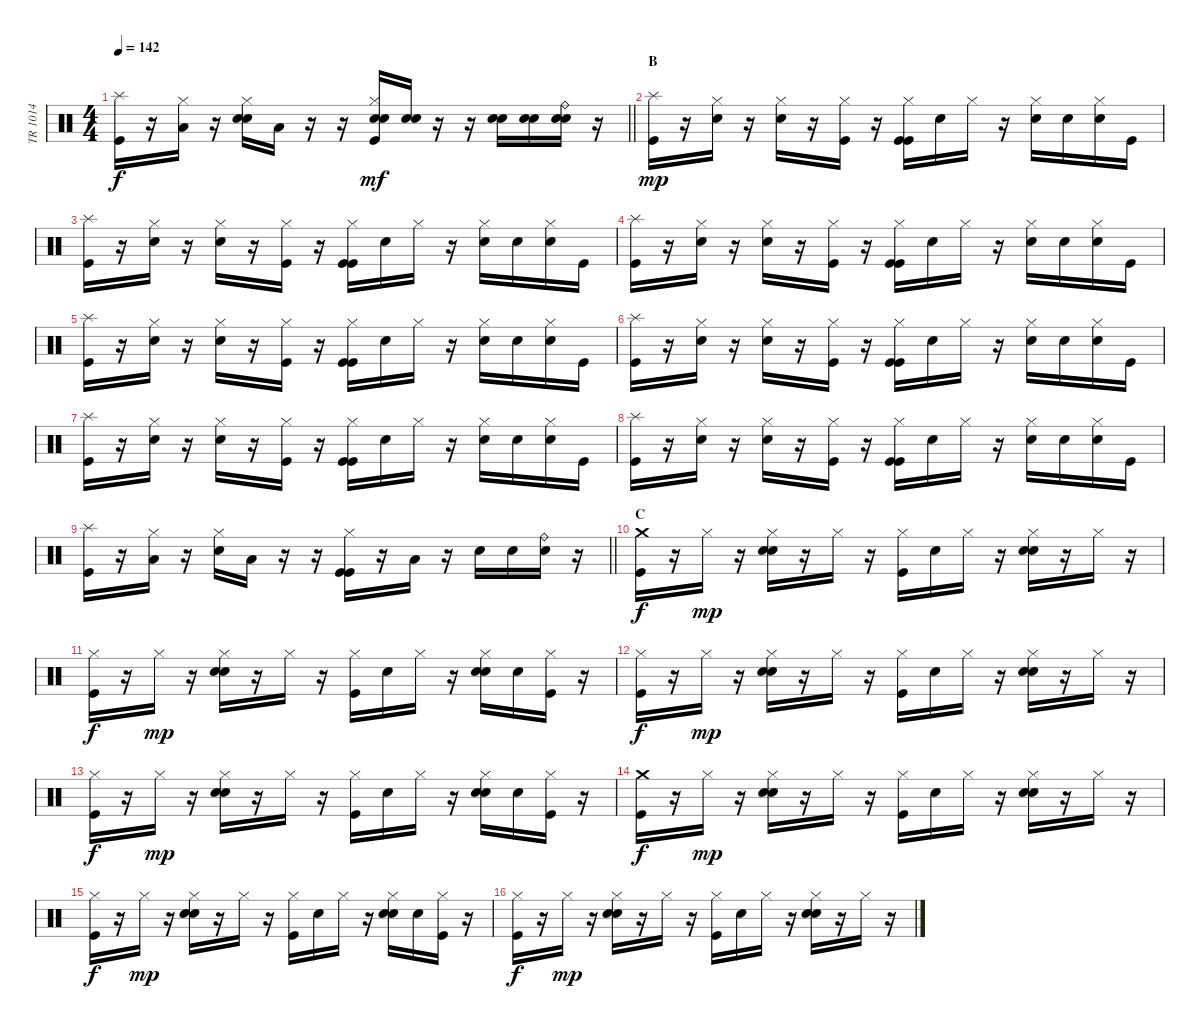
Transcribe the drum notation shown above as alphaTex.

\track ("TR 1014" "TR 1014") {instrument percussion}
\staff {score}
\articulation defaults
\ts (4 4)
\tempo 142
\clef neutral
\barLineRight lightlight
\ks c
("Splash (hit)" "Kick (hit)").16{dy f} r.16 ("Hi-Hat (closed)" "Low Tom (hit)").16 r.16 ("Hi-Hat (closed)" "Electric Snare (hit)" "Snare (hit) 2").16 "Low Tom (hit)".16 r.16 r.16 ("Hi-Hat (closed)" "Electric Snare (hit)" "Snare (hit) 2" "Kick (hit)").16{dy mf} ("Electric Snare (hit)" "Snare (hit) 2").16 r.16 r.16 ("Electric Snare (hit)" "Snare (hit) 2").16 ("Electric Snare (hit)" "Snare (hit) 2").16 ("Ride (bell)" "Electric Snare (hit)" "Snare (hit) 2").16 r.16 |
\section ("" "B")
("Splash (hit)" "Kick (hit)").16{dy mp} r.16 ("Hi-Hat (closed)" "Snare (hit) 2").16 r.16 ("Hi-Hat (closed)" "Snare (hit) 2").16 r.16 ("Hi-Hat (closed)" "Kick (hit)").16 r.16 ("Hi-Hat (closed)" "Kick (hit)" "Kick (hit)").16 "Snare (hit) 2".16 "Hi-Hat (closed)".16 r.16 ("Hi-Hat (closed)" "Snare (hit) 2").16 "Snare (hit) 2".16 ("Hi-Hat (closed)" "Snare (hit) 2").16 "Kick (hit)".16 |
("Splash (hit)" "Kick (hit)").16 r.16 ("Hi-Hat (closed)" "Snare (hit) 2").16 r.16 ("Hi-Hat (closed)" "Snare (hit) 2").16 r.16 ("Hi-Hat (closed)" "Kick (hit)").16 r.16 ("Hi-Hat (closed)" "Kick (hit)" "Kick (hit)").16 "Snare (hit) 2".16 "Hi-Hat (closed)".16 r.16 ("Hi-Hat (closed)" "Snare (hit) 2").16 "Snare (hit) 2".16 ("Hi-Hat (closed)" "Snare (hit) 2").16 "Kick (hit)".16 |
("Splash (hit)" "Kick (hit)").16 r.16 ("Hi-Hat (closed)" "Snare (hit) 2").16 r.16 ("Hi-Hat (closed)" "Snare (hit) 2").16 r.16 ("Hi-Hat (closed)" "Kick (hit)").16 r.16 ("Hi-Hat (closed)" "Kick (hit)" "Kick (hit)").16 "Snare (hit) 2".16 "Hi-Hat (closed)".16 r.16 ("Hi-Hat (closed)" "Snare (hit) 2").16 "Snare (hit) 2".16 ("Hi-Hat (closed)" "Snare (hit) 2").16 "Kick (hit)".16 |
("Splash (hit)" "Kick (hit)").16 r.16 ("Hi-Hat (closed)" "Snare (hit) 2").16 r.16 ("Hi-Hat (closed)" "Snare (hit) 2").16 r.16 ("Hi-Hat (closed)" "Kick (hit)").16 r.16 ("Hi-Hat (closed)" "Kick (hit)" "Kick (hit)").16 "Snare (hit) 2".16 "Hi-Hat (closed)".16 r.16 ("Hi-Hat (closed)" "Snare (hit) 2").16 "Snare (hit) 2".16 ("Hi-Hat (closed)" "Snare (hit) 2").16 "Kick (hit)".16 |
("Splash (hit)" "Kick (hit)").16 r.16 ("Hi-Hat (closed)" "Snare (hit) 2").16 r.16 ("Hi-Hat (closed)" "Snare (hit) 2").16 r.16 ("Hi-Hat (closed)" "Kick (hit)").16 r.16 ("Hi-Hat (closed)" "Kick (hit)" "Kick (hit)").16 "Snare (hit) 2".16 "Hi-Hat (closed)".16 r.16 ("Hi-Hat (closed)" "Snare (hit) 2").16 "Snare (hit) 2".16 ("Hi-Hat (closed)" "Snare (hit) 2").16 "Kick (hit)".16 |
("Splash (hit)" "Kick (hit)").16 r.16 ("Hi-Hat (closed)" "Snare (hit) 2").16 r.16 ("Hi-Hat (closed)" "Snare (hit) 2").16 r.16 ("Hi-Hat (closed)" "Kick (hit)").16 r.16 ("Hi-Hat (closed)" "Kick (hit)" "Kick (hit)").16 "Snare (hit) 2".16 "Hi-Hat (closed)".16 r.16 ("Hi-Hat (closed)" "Snare (hit) 2").16 "Snare (hit) 2".16 ("Hi-Hat (closed)" "Snare (hit) 2").16 "Kick (hit)".16 |
("Splash (hit)" "Kick (hit)").16 r.16 ("Hi-Hat (closed)" "Snare (hit) 2").16 r.16 ("Hi-Hat (closed)" "Snare (hit) 2").16 r.16 ("Hi-Hat (closed)" "Kick (hit)").16 r.16 ("Hi-Hat (closed)" "Kick (hit)" "Kick (hit)").16 "Snare (hit) 2".16 "Hi-Hat (closed)".16 r.16 ("Hi-Hat (closed)" "Snare (hit) 2").16 "Snare (hit) 2".16 ("Hi-Hat (closed)" "Snare (hit) 2").16 "Kick (hit)".16 |
\barLineRight lightlight
("Splash (hit)" "Kick (hit)").16 r.16 ("Hi-Hat (closed)" "Low Tom (hit)").16 r.16 ("Hi-Hat (closed)" "Snare (hit) 2").16 "Low Tom (hit)".16 r.16 r.16 ("Hi-Hat (closed)" "Kick (hit)" "Kick (hit)").16 r.16 "Low Tom (hit)".16 r.16 "Snare (hit) 2".16 "Snare (hit) 2".16 ("Ride (bell)" "Snare (hit) 2").16 r.16 |
\section ("" "C")
("Crash medium (hit)" "Kick (hit)").16{dy f} r.16 "Hi-Hat (closed)".16{dy mp} r.16 ("Hi-Hat (closed)" "Electric Snare (hit)" "Snare (hit) 2").16 r.16 "Hi-Hat (closed)".16 r.16 ("Hi-Hat (closed)" "Kick (hit)").16 "Snare (hit) 2".16 "Hi-Hat (closed)".16 r.16 ("Hi-Hat (closed)" "Electric Snare (hit)" "Snare (hit) 2").16 r.16 "Hi-Hat (closed)".16 r.16 |
("Hi-Hat (closed)" "Kick (hit)").16{dy f} r.16 "Hi-Hat (closed)".16{dy mp} r.16 ("Hi-Hat (closed)" "Electric Snare (hit)" "Snare (hit) 2").16 r.16 "Hi-Hat (closed)".16 r.16 ("Hi-Hat (closed)" "Kick (hit)").16 "Snare (hit) 2".16 "Hi-Hat (closed)".16 r.16 ("Hi-Hat (closed)" "Electric Snare (hit)" "Snare (hit) 2").16 "Snare (hit) 2".16 ("Hi-Hat (closed)" "Kick (hit)").16 r.16 |
("Hi-Hat (closed)" "Kick (hit)").16{dy f} r.16 "Hi-Hat (closed)".16{dy mp} r.16 ("Hi-Hat (closed)" "Electric Snare (hit)" "Snare (hit) 2").16 r.16 "Hi-Hat (closed)".16 r.16 ("Hi-Hat (closed)" "Kick (hit)").16 "Snare (hit) 2".16 "Hi-Hat (closed)".16 r.16 ("Hi-Hat (closed)" "Electric Snare (hit)" "Snare (hit) 2").16 r.16 "Hi-Hat (closed)".16 r.16 |
("Hi-Hat (closed)" "Kick (hit)").16{dy f} r.16 "Hi-Hat (closed)".16{dy mp} r.16 ("Hi-Hat (closed)" "Electric Snare (hit)" "Snare (hit) 2").16 r.16 "Hi-Hat (closed)".16 r.16 ("Hi-Hat (closed)" "Kick (hit)").16 "Snare (hit) 2".16 "Hi-Hat (closed)".16 r.16 ("Hi-Hat (closed)" "Electric Snare (hit)" "Snare (hit) 2").16 "Snare (hit) 2".16 ("Hi-Hat (closed)" "Kick (hit)").16 r.16 |
("Crash medium (hit)" "Kick (hit)").16{dy f} r.16 "Hi-Hat (closed)".16{dy mp} r.16 ("Hi-Hat (closed)" "Electric Snare (hit)" "Snare (hit) 2").16 r.16 "Hi-Hat (closed)".16 r.16 ("Hi-Hat (closed)" "Kick (hit)").16 "Snare (hit) 2".16 "Hi-Hat (closed)".16 r.16 ("Hi-Hat (closed)" "Electric Snare (hit)" "Snare (hit) 2").16 r.16 "Hi-Hat (closed)".16 r.16 |
("Hi-Hat (closed)" "Kick (hit)").16{dy f} r.16 "Hi-Hat (closed)".16{dy mp} r.16 ("Hi-Hat (closed)" "Electric Snare (hit)" "Snare (hit) 2").16 r.16 "Hi-Hat (closed)".16 r.16 ("Hi-Hat (closed)" "Kick (hit)").16 "Snare (hit) 2".16 "Hi-Hat (closed)".16 r.16 ("Hi-Hat (closed)" "Electric Snare (hit)" "Snare (hit) 2").16 "Snare (hit) 2".16 ("Hi-Hat (closed)" "Kick (hit)").16 r.16 |
("Hi-Hat (closed)" "Kick (hit)").16{dy f} r.16 "Hi-Hat (closed)".16{dy mp} r.16 ("Hi-Hat (closed)" "Electric Snare (hit)" "Snare (hit) 2").16 r.16 "Hi-Hat (closed)".16 r.16 ("Hi-Hat (closed)" "Kick (hit)").16 "Snare (hit) 2".16 "Hi-Hat (closed)".16 r.16 ("Hi-Hat (closed)" "Electric Snare (hit)" "Snare (hit) 2").16 r.16 "Hi-Hat (closed)".16 r.16
